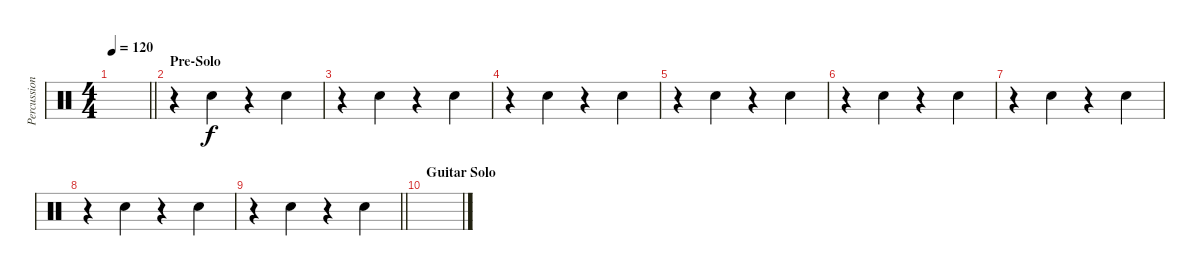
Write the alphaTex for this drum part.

\track ("Percussions" "Percussion") {instrument percussion}
\staff {score}
\articulation defaults
\ts (4 4)
\tempo 120
\clef neutral
\barLineRight lightlight
\ks c
|
\section ("" "Pre-Solo")
r.4 "Electric Snare (hit)".4 r.4 "Electric Snare (hit)".4 |
r.4 "Electric Snare (hit)".4 r.4 "Electric Snare (hit)".4 |
r.4 "Electric Snare (hit)".4 r.4 "Electric Snare (hit)".4 |
r.4 "Electric Snare (hit)".4 r.4 "Electric Snare (hit)".4 |
r.4 "Electric Snare (hit)".4 r.4 "Electric Snare (hit)".4 |
r.4 "Electric Snare (hit)".4 r.4 "Electric Snare (hit)".4 |
r.4 "Electric Snare (hit)".4 r.4 "Electric Snare (hit)".4 |
\barLineRight lightlight
r.4 "Electric Snare (hit)".4 r.4 "Electric Snare (hit)".4 |
\section ("" "Guitar Solo")
